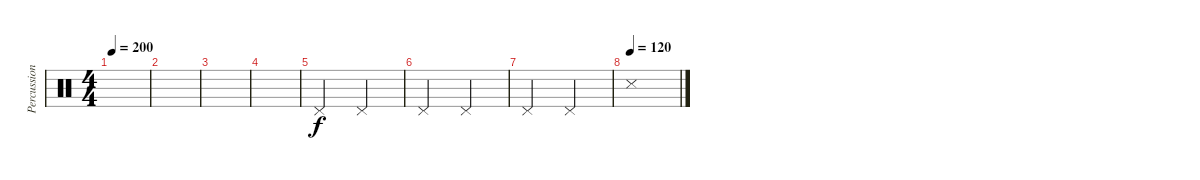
\track ("Percussion" "Percussion") {instrument percussion}
\staff {score}
\articulation defaults
\ts (4 4)
\tempo 200
\clef neutral
\ks c
|
|
|
|
"Pedal Hi-Hat (hit)".2 "Pedal Hi-Hat (hit)".2 |
"Pedal Hi-Hat (hit)".2 "Pedal Hi-Hat (hit)".2 |
"Pedal Hi-Hat (hit)".2 "Pedal Hi-Hat (hit)".2 |
\tempo (120)
"Snare (side stick) 3".1
